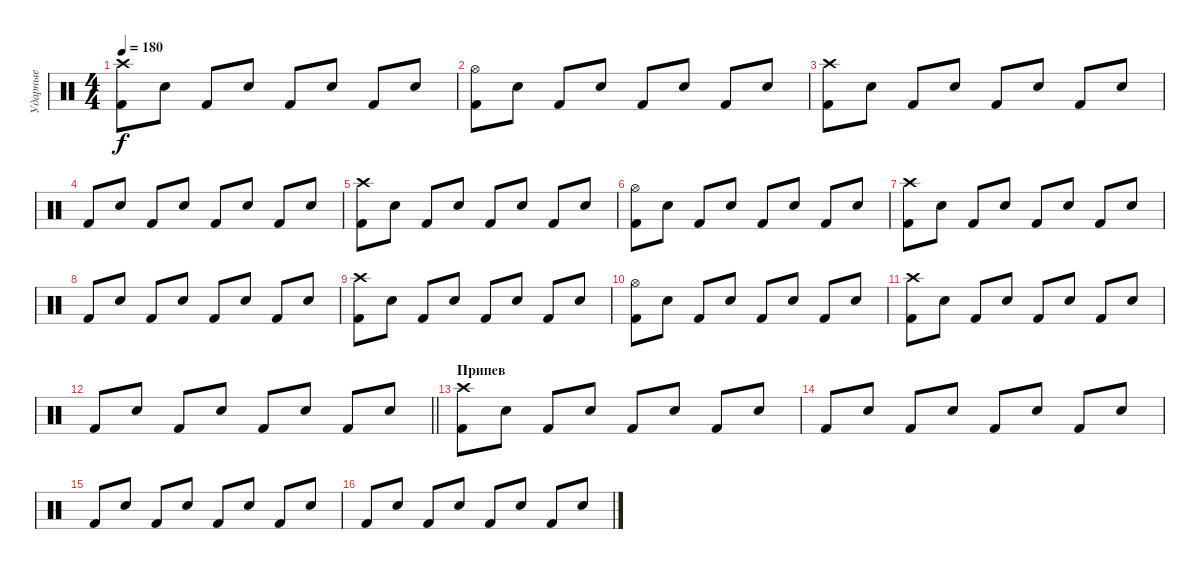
\track ("Ударные" "Ударные") {instrument percussion}
\staff {score}
\articulation defaults
\ts (4 4)
\tempo 180
\clef neutral
\ks c
("Kick (hit) 2" "Crash high (hit)").8{dy f} "Snare (hit) 2".8 "Kick (hit) 2".8 "Snare (hit) 2".8 "Kick (hit) 2".8 "Snare (hit) 2".8 "Kick (hit) 2".8 "Snare (hit) 2".8 |
("Kick (hit) 2" "Hi-Hat (open)").8 "Snare (hit) 2".8 "Kick (hit) 2".8 "Snare (hit) 2".8 "Kick (hit) 2".8 "Snare (hit) 2".8 "Kick (hit) 2".8 "Snare (hit) 2".8 |
("Kick (hit) 2" "Crash high (hit)").8 "Snare (hit) 2".8 "Kick (hit) 2".8 "Snare (hit) 2".8 "Kick (hit) 2".8 "Snare (hit) 2".8 "Kick (hit) 2".8 "Snare (hit) 2".8 |
"Kick (hit) 2".8 "Snare (hit) 2".8 "Kick (hit) 2".8 "Snare (hit) 2".8 "Kick (hit) 2".8 "Snare (hit) 2".8 "Kick (hit) 2".8 "Snare (hit) 2".8 |
("Kick (hit) 2" "Crash high (hit)").8 "Snare (hit) 2".8 "Kick (hit) 2".8 "Snare (hit) 2".8 "Kick (hit) 2".8 "Snare (hit) 2".8 "Kick (hit) 2".8 "Snare (hit) 2".8 |
("Kick (hit) 2" "Hi-Hat (open)").8 "Snare (hit) 2".8 "Kick (hit) 2".8 "Snare (hit) 2".8 "Kick (hit) 2".8 "Snare (hit) 2".8 "Kick (hit) 2".8 "Snare (hit) 2".8 |
("Kick (hit) 2" "Crash high (hit)").8 "Snare (hit) 2".8 "Kick (hit) 2".8 "Snare (hit) 2".8 "Kick (hit) 2".8 "Snare (hit) 2".8 "Kick (hit) 2".8 "Snare (hit) 2".8 |
"Kick (hit) 2".8 "Snare (hit) 2".8 "Kick (hit) 2".8 "Snare (hit) 2".8 "Kick (hit) 2".8 "Snare (hit) 2".8 "Kick (hit) 2".8 "Snare (hit) 2".8 |
("Kick (hit) 2" "Crash high (hit)").8 "Snare (hit) 2".8 "Kick (hit) 2".8 "Snare (hit) 2".8 "Kick (hit) 2".8 "Snare (hit) 2".8 "Kick (hit) 2".8 "Snare (hit) 2".8 |
("Kick (hit) 2" "Hi-Hat (open)").8 "Snare (hit) 2".8 "Kick (hit) 2".8 "Snare (hit) 2".8 "Kick (hit) 2".8 "Snare (hit) 2".8 "Kick (hit) 2".8 "Snare (hit) 2".8 |
("Kick (hit) 2" "Crash high (hit)").8 "Snare (hit) 2".8 "Kick (hit) 2".8 "Snare (hit) 2".8 "Kick (hit) 2".8 "Snare (hit) 2".8 "Kick (hit) 2".8 "Snare (hit) 2".8 |
\barLineRight lightlight "Kick (hit) 2".8 "Snare (hit) 2".8 "Kick (hit) 2".8 "Snare (hit) 2".8 "Kick (hit) 2".8 "Snare (hit) 2".8 "Kick (hit) 2".8 "Snare (hit) 2".8
|
\section ("" "Припев")
("Kick (hit) 2" "Crash high (hit)").8 "Snare (hit) 2".8 "Kick (hit) 2".8 "Snare (hit) 2".8 "Kick (hit) 2".8 "Snare (hit) 2".8 "Kick (hit) 2".8 "Snare (hit) 2".8 |
"Kick (hit) 2".8 "Snare (hit) 2".8 "Kick (hit) 2".8 "Snare (hit) 2".8 "Kick (hit) 2".8 "Snare (hit) 2".8 "Kick (hit) 2".8 "Snare (hit) 2".8 |
"Kick (hit) 2".8 "Snare (hit) 2".8 "Kick (hit) 2".8 "Snare (hit) 2".8 "Kick (hit) 2".8 "Snare (hit) 2".8 "Kick (hit) 2".8 "Snare (hit) 2".8 |
"Kick (hit) 2".8 "Snare (hit) 2".8 "Kick (hit) 2".8 "Snare (hit) 2".8 "Kick (hit) 2".8 "Snare (hit) 2".8 "Kick (hit) 2".8 "Snare (hit) 2".8
